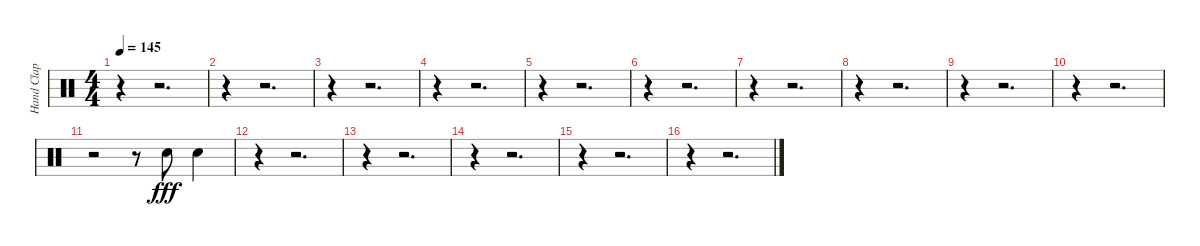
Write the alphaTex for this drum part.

\track ("Hand Clap" "Hand Clap") {instrument percussion}
\staff {score}
\articulation defaults
\ts (4 4)
\tempo 145
\clef neutral
\ks c
r.4{dy fff} r.2{d} |
r.4 r.2{d} |
r.4 r.2{d} |
r.4 r.2{d} |
r.4 r.2{d} |
r.4 r.2{d} |
r.4 r.2{d} |
r.4 r.2{d} |
r.4 r.2{d} |
r.4 r.2{d} |
r.2 r.8 "Hand Clap (hit)".8 "Hand Clap (hit)".4 |
r.4 r.2{d} |
r.4 r.2{d} |
r.4 r.2{d} |
r.4 r.2{d} |
r.4 r.2{d}
